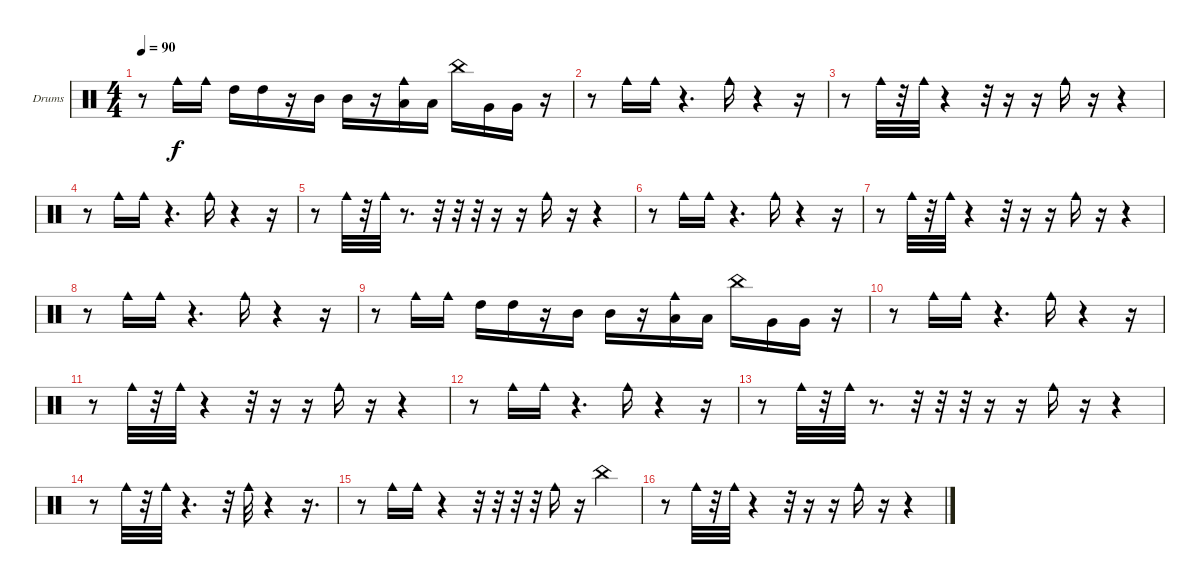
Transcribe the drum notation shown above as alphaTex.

\defaultSystemsLayout 4
\bracketExtendMode groupsimilarinstruments
\firstSystemTrackNameOrientation horizontal
\otherSystemsTrackNameOrientation horizontal
\track ("Drumkit" "Drums") {instrument percussion}
\staff {score}
\articulation defaults
\ts (4 4)
\tempo 90
\clef neutral
\scale
0.333333
\ks c
r.8{dy f} "Cowbell medium (hit)".16 "Cowbell medium (hit)".16 "High Tom (hit)".16 "High Tom (hit)".16 r.16 "Mid Tom (hit)".16 "Mid Tom (hit)".16 r.16 ("Low Tom (hit)" "Cowbell medium (hit)").16 "Low Tom (hit)".16 "China (hit)".16 "Very Low Tom (hit)".16 "Very Low Tom (hit)".16 r.16 |
\scale
0.333333 r.8 "Cowbell medium (hit)".16 "Cowbell medium (hit)".16 r.4{d} "Cowbell medium (hit)".16 r.4 r.16 |
\scale
0.333333 r.8 "Cowbell medium (hit)".32 r.32 "Cowbell medium (hit)".32 r.4 r.32 r.16 r.16 "Cowbell medium (hit)".16 r.16 r.4 |
\scale
0.333333 r.8 "Cowbell medium (hit)".16 "Cowbell medium (hit)".16 r.4{d} "Cowbell medium (hit)".16 r.4 r.16 |
\scale
0.333333 r.8 "Cowbell medium (hit)".32 r.32 "Cowbell medium (hit)".32 r.8{d} r.32 r.32 r.32 r.16 r.16 "Cowbell medium (hit)".16 r.16 r.4 |
\scale
0.333333 r.8 "Cowbell medium (hit)".16 "Cowbell medium (hit)".16 r.4{d} "Cowbell medium (hit)".16 r.4 r.16 |
\scale
0.333333 r.8 "Cowbell medium (hit)".32 r.32 "Cowbell medium (hit)".32 r.4 r.32 r.16 r.16 "Cowbell medium (hit)".16 r.16 r.4 |
\scale
0.333333 r.8 "Cowbell medium (hit)".16 "Cowbell medium (hit)".16 r.4{d} "Cowbell medium (hit)".16 r.4 r.16 |
\scale
0.333333 r.8 "Cowbell medium (hit)".16 "Cowbell medium (hit)".16 "High Tom (hit)".16 "High Tom (hit)".16 r.16 "Mid Tom (hit)".16 "Mid Tom (hit)".16 r.16 ("Cowbell medium (hit)" "Low Tom (hit)").16 "Low Tom (hit)".16 "China (hit)".16 "Very Low Tom (hit)".16 "Very Low Tom (hit)".16 r.16 |
\scale
0.333333 r.8 "Cowbell medium (hit)".16 "Cowbell medium (hit)".16 r.4{d} "Cowbell medium (hit)".16 r.4 r.16 |
\scale
0.333333 r.8 "Cowbell medium (hit)".32 r.32 "Cowbell medium (hit)".32 r.4 r.32 r.16 r.16 "Cowbell medium (hit)".16 r.16 r.4 |
\scale
0.333333 r.8 "Cowbell medium (hit)".16 "Cowbell medium (hit)".16 r.4{d} "Cowbell medium (hit)".16 r.4 r.16 |
\scale
0.333333 r.8 "Cowbell medium (hit)".32 r.32 "Cowbell medium (hit)".32 r.8{d} r.32 r.32 r.32 r.16 r.16 "Cowbell medium (hit)".16 r.16 r.4 |
\scale
0.333333 r.8 "Cowbell medium (hit)".32 r.32 "Cowbell medium (hit)".32 r.4{d} r.32 "Cowbell medium (hit)".32 r.4 r.16{d} |
\scale
0.333333 r.8 "Cowbell medium (hit)".16 "Cowbell medium (hit)".16 r.4 r.32 r.32 r.32 r.32 "Cowbell medium (hit)".16 r.16 "China (hit)".4 |
\scale
0.333333 r.8 "Cowbell medium (hit)".32 r.32 "Cowbell medium (hit)".32 r.4 r.32 r.16 r.16 "Cowbell medium (hit)".16 r.16 r.4
